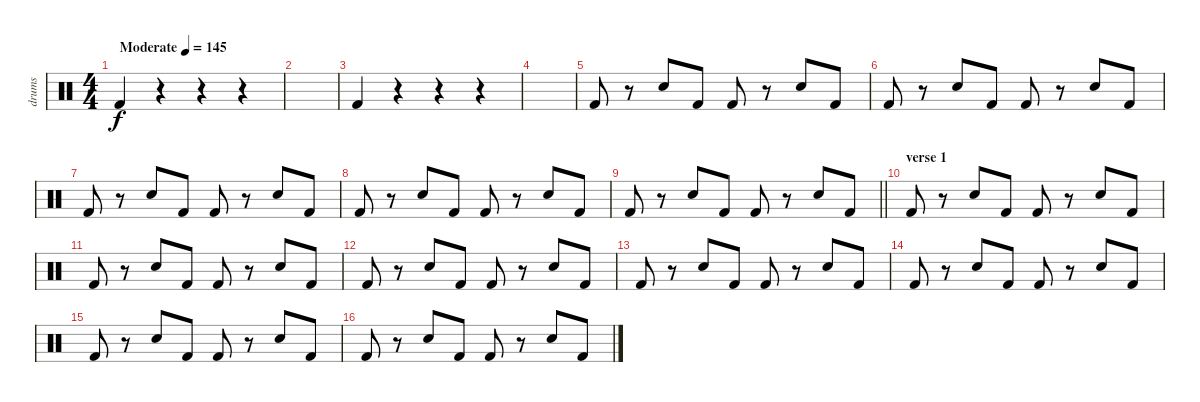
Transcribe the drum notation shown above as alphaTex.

\track ("drums" "drums") {instrument percussion}
\staff {score}
\articulation defaults
\ts (4 4)
\tempo (145 "Moderate")
\clef neutral
\ks c "Kick (hit) 2".4{dy f}
r.4 r.4 r.4 |
|
"Kick (hit) 2".4 r.4 r.4 r.4 |
|
"Kick (hit) 2".8 r.8 "Snare (hit) 2".8 "Kick (hit) 2".8 "Kick (hit) 2".8 r.8 "Snare (hit) 2".8 "Kick (hit) 2".8 |
"Kick (hit) 2".8 r.8 "Snare (hit) 2".8 "Kick (hit) 2".8 "Kick (hit) 2".8 r.8 "Snare (hit) 2".8 "Kick (hit) 2".8 |
"Kick (hit) 2".8 r.8 "Snare (hit) 2".8 "Kick (hit) 2".8 "Kick (hit) 2".8 r.8 "Snare (hit) 2".8 "Kick (hit) 2".8 |
"Kick (hit) 2".8 r.8 "Snare (hit) 2".8 "Kick (hit) 2".8 "Kick (hit) 2".8 r.8 "Snare (hit) 2".8 "Kick (hit) 2".8 |
\barLineRight lightlight "Kick (hit) 2".8
r.8 "Snare (hit) 2".8 "Kick (hit) 2".8 "Kick (hit) 2".8 r.8 "Snare (hit) 2".8 "Kick (hit) 2".8 |
\section ("" "verse 1")
"Kick (hit) 2".8 r.8 "Snare (hit) 2".8 "Kick (hit) 2".8 "Kick (hit) 2".8 r.8 "Snare (hit) 2".8 "Kick (hit) 2".8 |
"Kick (hit) 2".8 r.8 "Snare (hit) 2".8 "Kick (hit) 2".8 "Kick (hit) 2".8 r.8 "Snare (hit) 2".8 "Kick (hit) 2".8 |
"Kick (hit) 2".8 r.8 "Snare (hit) 2".8 "Kick (hit) 2".8 "Kick (hit) 2".8 r.8 "Snare (hit) 2".8 "Kick (hit) 2".8 |
"Kick (hit) 2".8 r.8 "Snare (hit) 2".8 "Kick (hit) 2".8 "Kick (hit) 2".8 r.8 "Snare (hit) 2".8 "Kick (hit) 2".8 |
"Kick (hit) 2".8 r.8 "Snare (hit) 2".8 "Kick (hit) 2".8 "Kick (hit) 2".8 r.8 "Snare (hit) 2".8 "Kick (hit) 2".8 |
"Kick (hit) 2".8 r.8 "Snare (hit) 2".8 "Kick (hit) 2".8 "Kick (hit) 2".8 r.8 "Snare (hit) 2".8 "Kick (hit) 2".8 |
"Kick (hit) 2".8 r.8 "Snare (hit) 2".8 "Kick (hit) 2".8 "Kick (hit) 2".8 r.8 "Snare (hit) 2".8 "Kick (hit) 2".8
